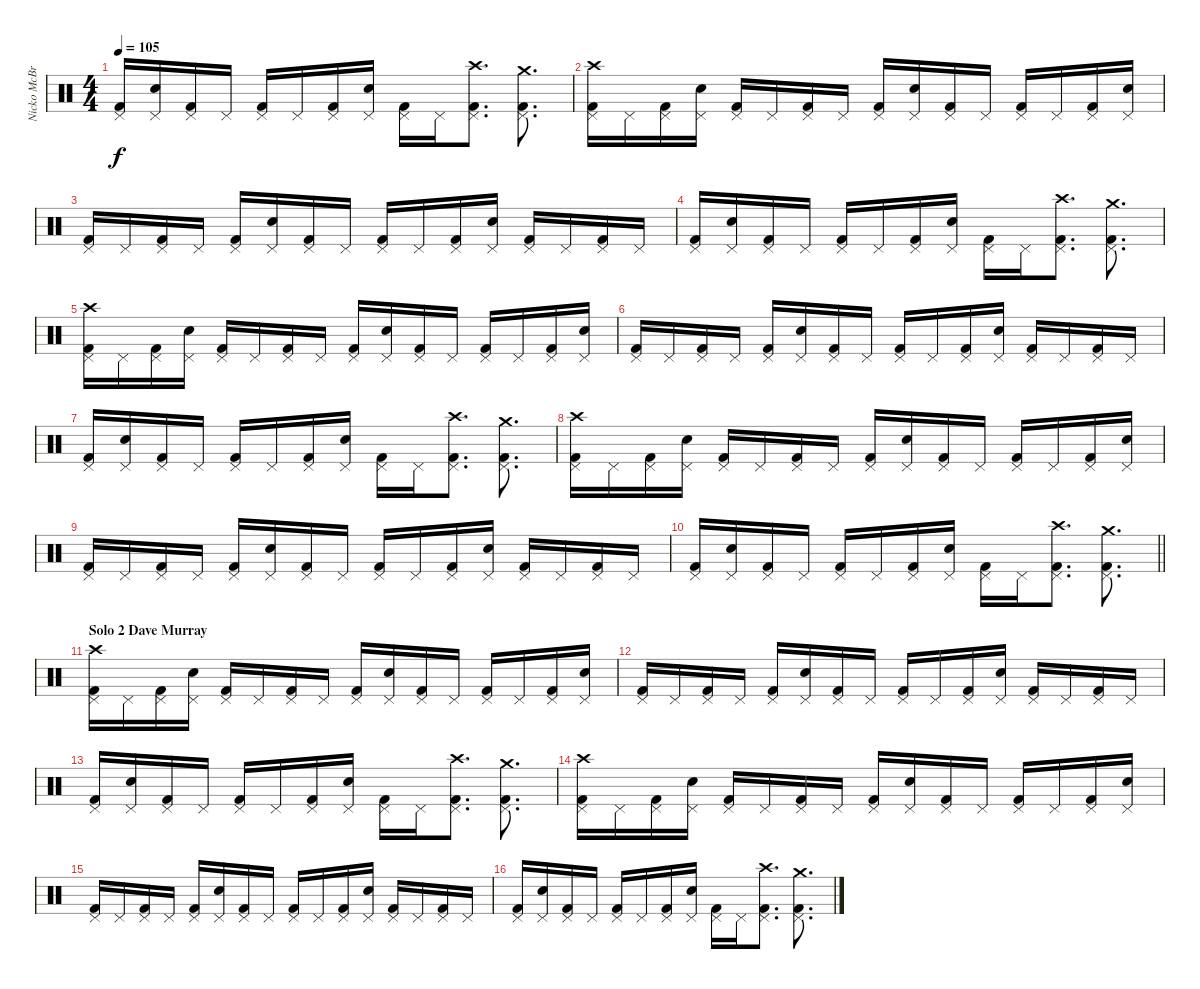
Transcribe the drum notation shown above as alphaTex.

\track ("Nicko McBrain" "Nicko McBr") {instrument percussion}
\staff {score}
\articulation defaults
\ts (4 4)
\tempo 105
\clef neutral
\ks c
("Kick (hit) 2" "Pedal Hi-Hat (hit)").16{dy f} ("Snare (hit) 2" "Pedal Hi-Hat (hit)").16 ("Kick (hit) 2" "Pedal Hi-Hat (hit)").16 "Pedal Hi-Hat (hit)".16 ("Kick (hit) 2" "Pedal Hi-Hat (hit)").16 "Pedal Hi-Hat (hit)".16 ("Kick (hit) 2" "Pedal Hi-Hat (hit)").16 ("Snare (hit) 2" "Pedal Hi-Hat (hit)").16 ("Kick (hit) 2" "Pedal Hi-Hat (hit)").16 "Pedal Hi-Hat (hit)".16 ("Kick (hit) 2" "Pedal Hi-Hat (hit)" "Crash high (hit)").8{d} ("Kick (hit) 2" "Pedal Hi-Hat (hit)" "Crash medium (hit)").8{d} |
("Kick (hit) 2" "Pedal Hi-Hat (hit)" "Crash high (hit)").16 "Pedal Hi-Hat (hit)".16 ("Kick (hit) 2" "Pedal Hi-Hat (hit)").16 ("Snare (hit) 2" "Pedal Hi-Hat (hit)").16 ("Kick (hit) 2" "Pedal Hi-Hat (hit)").16 "Pedal Hi-Hat (hit)".16 ("Kick (hit) 2" "Pedal Hi-Hat (hit)").16 "Pedal Hi-Hat (hit)".16 ("Kick (hit) 2" "Pedal Hi-Hat (hit)").16 ("Snare (hit) 2" "Pedal Hi-Hat (hit)").16 ("Kick (hit) 2" "Pedal Hi-Hat (hit)").16 "Pedal Hi-Hat (hit)".16 ("Kick (hit) 2" "Pedal Hi-Hat (hit)").16 "Pedal Hi-Hat (hit)".16 ("Kick (hit) 2" "Pedal Hi-Hat (hit)").16 ("Snare (hit) 2" "Pedal Hi-Hat (hit)").16 |
("Kick (hit) 2" "Pedal Hi-Hat (hit)").16 "Pedal Hi-Hat (hit)".16 ("Kick (hit) 2" "Pedal Hi-Hat (hit)").16 "Pedal Hi-Hat (hit)".16 ("Kick (hit) 2" "Pedal Hi-Hat (hit)").16 ("Snare (hit) 2" "Pedal Hi-Hat (hit)").16 ("Kick (hit) 2" "Pedal Hi-Hat (hit)").16 "Pedal Hi-Hat (hit)".16 ("Kick (hit) 2" "Pedal Hi-Hat (hit)").16 "Pedal Hi-Hat (hit)".16 ("Kick (hit) 2" "Pedal Hi-Hat (hit)").16 ("Snare (hit) 2" "Pedal Hi-Hat (hit)").16 ("Kick (hit) 2" "Pedal Hi-Hat (hit)").16 "Pedal Hi-Hat (hit)".16 ("Kick (hit) 2" "Pedal Hi-Hat (hit)").16 "Pedal Hi-Hat (hit)".16 |
("Kick (hit) 2" "Pedal Hi-Hat (hit)").16 ("Snare (hit) 2" "Pedal Hi-Hat (hit)").16 ("Kick (hit) 2" "Pedal Hi-Hat (hit)").16 "Pedal Hi-Hat (hit)".16 ("Kick (hit) 2" "Pedal Hi-Hat (hit)").16 "Pedal Hi-Hat (hit)".16 ("Kick (hit) 2" "Pedal Hi-Hat (hit)").16 ("Snare (hit) 2" "Pedal Hi-Hat (hit)").16 ("Kick (hit) 2" "Pedal Hi-Hat (hit)").16 "Pedal Hi-Hat (hit)".16 ("Kick (hit) 2" "Pedal Hi-Hat (hit)" "Crash high (hit)").8{d} ("Kick (hit) 2" "Pedal Hi-Hat (hit)" "Crash medium (hit)").8{d} |
("Kick (hit) 2" "Pedal Hi-Hat (hit)" "Crash high (hit)").16 "Pedal Hi-Hat (hit)".16 ("Kick (hit) 2" "Pedal Hi-Hat (hit)").16 ("Snare (hit) 2" "Pedal Hi-Hat (hit)").16 ("Kick (hit) 2" "Pedal Hi-Hat (hit)").16 "Pedal Hi-Hat (hit)".16 ("Kick (hit) 2" "Pedal Hi-Hat (hit)").16 "Pedal Hi-Hat (hit)".16 ("Kick (hit) 2" "Pedal Hi-Hat (hit)").16 ("Snare (hit) 2" "Pedal Hi-Hat (hit)").16 ("Kick (hit) 2" "Pedal Hi-Hat (hit)").16 "Pedal Hi-Hat (hit)".16 ("Kick (hit) 2" "Pedal Hi-Hat (hit)").16 "Pedal Hi-Hat (hit)".16 ("Kick (hit) 2" "Pedal Hi-Hat (hit)").16 ("Snare (hit) 2" "Pedal Hi-Hat (hit)").16 |
("Kick (hit) 2" "Pedal Hi-Hat (hit)").16 "Pedal Hi-Hat (hit)".16 ("Kick (hit) 2" "Pedal Hi-Hat (hit)").16 "Pedal Hi-Hat (hit)".16 ("Kick (hit) 2" "Pedal Hi-Hat (hit)").16 ("Snare (hit) 2" "Pedal Hi-Hat (hit)").16 ("Kick (hit) 2" "Pedal Hi-Hat (hit)").16 "Pedal Hi-Hat (hit)".16 ("Kick (hit) 2" "Pedal Hi-Hat (hit)").16 "Pedal Hi-Hat (hit)".16 ("Kick (hit) 2" "Pedal Hi-Hat (hit)").16 ("Snare (hit) 2" "Pedal Hi-Hat (hit)").16 ("Kick (hit) 2" "Pedal Hi-Hat (hit)").16 "Pedal Hi-Hat (hit)".16 ("Kick (hit) 2" "Pedal Hi-Hat (hit)").16 "Pedal Hi-Hat (hit)".16 |
("Kick (hit) 2" "Pedal Hi-Hat (hit)").16 ("Snare (hit) 2" "Pedal Hi-Hat (hit)").16 ("Kick (hit) 2" "Pedal Hi-Hat (hit)").16 "Pedal Hi-Hat (hit)".16 ("Kick (hit) 2" "Pedal Hi-Hat (hit)").16 "Pedal Hi-Hat (hit)".16 ("Kick (hit) 2" "Pedal Hi-Hat (hit)").16 ("Snare (hit) 2" "Pedal Hi-Hat (hit)").16 ("Kick (hit) 2" "Pedal Hi-Hat (hit)").16 "Pedal Hi-Hat (hit)".16 ("Kick (hit) 2" "Pedal Hi-Hat (hit)" "Crash high (hit)").8{d} ("Kick (hit) 2" "Pedal Hi-Hat (hit)" "Crash medium (hit)").8{d} |
("Kick (hit) 2" "Pedal Hi-Hat (hit)" "Crash high (hit)").16 "Pedal Hi-Hat (hit)".16 ("Kick (hit) 2" "Pedal Hi-Hat (hit)").16 ("Snare (hit) 2" "Pedal Hi-Hat (hit)").16 ("Kick (hit) 2" "Pedal Hi-Hat (hit)").16 "Pedal Hi-Hat (hit)".16 ("Kick (hit) 2" "Pedal Hi-Hat (hit)").16 "Pedal Hi-Hat (hit)".16 ("Kick (hit) 2" "Pedal Hi-Hat (hit)").16 ("Snare (hit) 2" "Pedal Hi-Hat (hit)").16 ("Kick (hit) 2" "Pedal Hi-Hat (hit)").16 "Pedal Hi-Hat (hit)".16 ("Kick (hit) 2" "Pedal Hi-Hat (hit)").16 "Pedal Hi-Hat (hit)".16 ("Kick (hit) 2" "Pedal Hi-Hat (hit)").16 ("Snare (hit) 2" "Pedal Hi-Hat (hit)").16 |
("Kick (hit) 2" "Pedal Hi-Hat (hit)").16 "Pedal Hi-Hat (hit)".16 ("Kick (hit) 2" "Pedal Hi-Hat (hit)").16 "Pedal Hi-Hat (hit)".16 ("Kick (hit) 2" "Pedal Hi-Hat (hit)").16 ("Snare (hit) 2" "Pedal Hi-Hat (hit)").16 ("Kick (hit) 2" "Pedal Hi-Hat (hit)").16 "Pedal Hi-Hat (hit)".16 ("Kick (hit) 2" "Pedal Hi-Hat (hit)").16 "Pedal Hi-Hat (hit)".16 ("Kick (hit) 2" "Pedal Hi-Hat (hit)").16 ("Snare (hit) 2" "Pedal Hi-Hat (hit)").16 ("Kick (hit) 2" "Pedal Hi-Hat (hit)").16 "Pedal Hi-Hat (hit)".16 ("Kick (hit) 2" "Pedal Hi-Hat (hit)").16 "Pedal Hi-Hat (hit)".16 |
\barLineRight lightlight
("Kick (hit) 2" "Pedal Hi-Hat (hit)").16 ("Snare (hit) 2" "Pedal Hi-Hat (hit)").16 ("Kick (hit) 2" "Pedal Hi-Hat (hit)").16 "Pedal Hi-Hat (hit)".16 ("Kick (hit) 2" "Pedal Hi-Hat (hit)").16 "Pedal Hi-Hat (hit)".16 ("Kick (hit) 2" "Pedal Hi-Hat (hit)").16 ("Snare (hit) 2" "Pedal Hi-Hat (hit)").16 ("Kick (hit) 2" "Pedal Hi-Hat (hit)").16 "Pedal Hi-Hat (hit)".16 ("Kick (hit) 2" "Pedal Hi-Hat (hit)" "Crash high (hit)").8{d} ("Kick (hit) 2" "Pedal Hi-Hat (hit)" "Crash medium (hit)").8{d} |
\section ("" "Solo 2 Dave Murray")
("Kick (hit) 2" "Pedal Hi-Hat (hit)" "Crash high (hit)").16 "Pedal Hi-Hat (hit)".16 ("Kick (hit) 2" "Pedal Hi-Hat (hit)").16 ("Snare (hit) 2" "Pedal Hi-Hat (hit)").16 ("Kick (hit) 2" "Pedal Hi-Hat (hit)").16 "Pedal Hi-Hat (hit)".16 ("Kick (hit) 2" "Pedal Hi-Hat (hit)").16 "Pedal Hi-Hat (hit)".16 ("Kick (hit) 2" "Pedal Hi-Hat (hit)").16 ("Snare (hit) 2" "Pedal Hi-Hat (hit)").16 ("Kick (hit) 2" "Pedal Hi-Hat (hit)").16 "Pedal Hi-Hat (hit)".16 ("Kick (hit) 2" "Pedal Hi-Hat (hit)").16 "Pedal Hi-Hat (hit)".16 ("Kick (hit) 2" "Pedal Hi-Hat (hit)").16 ("Snare (hit) 2" "Pedal Hi-Hat (hit)").16 |
("Kick (hit) 2" "Pedal Hi-Hat (hit)").16 "Pedal Hi-Hat (hit)".16 ("Kick (hit) 2" "Pedal Hi-Hat (hit)").16 "Pedal Hi-Hat (hit)".16 ("Kick (hit) 2" "Pedal Hi-Hat (hit)").16 ("Snare (hit) 2" "Pedal Hi-Hat (hit)").16 ("Kick (hit) 2" "Pedal Hi-Hat (hit)").16 "Pedal Hi-Hat (hit)".16 ("Kick (hit) 2" "Pedal Hi-Hat (hit)").16 "Pedal Hi-Hat (hit)".16 ("Kick (hit) 2" "Pedal Hi-Hat (hit)").16 ("Snare (hit) 2" "Pedal Hi-Hat (hit)").16 ("Kick (hit) 2" "Pedal Hi-Hat (hit)").16 "Pedal Hi-Hat (hit)".16 ("Kick (hit) 2" "Pedal Hi-Hat (hit)").16 "Pedal Hi-Hat (hit)".16 |
("Kick (hit) 2" "Pedal Hi-Hat (hit)").16 ("Snare (hit) 2" "Pedal Hi-Hat (hit)").16 ("Kick (hit) 2" "Pedal Hi-Hat (hit)").16 "Pedal Hi-Hat (hit)".16 ("Kick (hit) 2" "Pedal Hi-Hat (hit)").16 "Pedal Hi-Hat (hit)".16 ("Kick (hit) 2" "Pedal Hi-Hat (hit)").16 ("Snare (hit) 2" "Pedal Hi-Hat (hit)").16 ("Kick (hit) 2" "Pedal Hi-Hat (hit)").16 "Pedal Hi-Hat (hit)".16 ("Kick (hit) 2" "Pedal Hi-Hat (hit)" "Crash high (hit)").8{d} ("Kick (hit) 2" "Pedal Hi-Hat (hit)" "Crash medium (hit)").8{d} |
("Kick (hit) 2" "Pedal Hi-Hat (hit)" "Crash high (hit)").16 "Pedal Hi-Hat (hit)".16 ("Kick (hit) 2" "Pedal Hi-Hat (hit)").16 ("Snare (hit) 2" "Pedal Hi-Hat (hit)").16 ("Kick (hit) 2" "Pedal Hi-Hat (hit)").16 "Pedal Hi-Hat (hit)".16 ("Kick (hit) 2" "Pedal Hi-Hat (hit)").16 "Pedal Hi-Hat (hit)".16 ("Kick (hit) 2" "Pedal Hi-Hat (hit)").16 ("Snare (hit) 2" "Pedal Hi-Hat (hit)").16 ("Kick (hit) 2" "Pedal Hi-Hat (hit)").16 "Pedal Hi-Hat (hit)".16 ("Kick (hit) 2" "Pedal Hi-Hat (hit)").16 "Pedal Hi-Hat (hit)".16 ("Kick (hit) 2" "Pedal Hi-Hat (hit)").16 ("Snare (hit) 2" "Pedal Hi-Hat (hit)").16 |
("Kick (hit) 2" "Pedal Hi-Hat (hit)").16 "Pedal Hi-Hat (hit)".16 ("Kick (hit) 2" "Pedal Hi-Hat (hit)").16 "Pedal Hi-Hat (hit)".16 ("Kick (hit) 2" "Pedal Hi-Hat (hit)").16 ("Snare (hit) 2" "Pedal Hi-Hat (hit)").16 ("Kick (hit) 2" "Pedal Hi-Hat (hit)").16 "Pedal Hi-Hat (hit)".16 ("Kick (hit) 2" "Pedal Hi-Hat (hit)").16 "Pedal Hi-Hat (hit)".16 ("Kick (hit) 2" "Pedal Hi-Hat (hit)").16 ("Snare (hit) 2" "Pedal Hi-Hat (hit)").16 ("Kick (hit) 2" "Pedal Hi-Hat (hit)").16 "Pedal Hi-Hat (hit)".16 ("Kick (hit) 2" "Pedal Hi-Hat (hit)").16 "Pedal Hi-Hat (hit)".16 |
("Kick (hit) 2" "Pedal Hi-Hat (hit)").16 ("Snare (hit) 2" "Pedal Hi-Hat (hit)").16 ("Kick (hit) 2" "Pedal Hi-Hat (hit)").16 "Pedal Hi-Hat (hit)".16 ("Kick (hit) 2" "Pedal Hi-Hat (hit)").16 "Pedal Hi-Hat (hit)".16 ("Kick (hit) 2" "Pedal Hi-Hat (hit)").16 ("Snare (hit) 2" "Pedal Hi-Hat (hit)").16 ("Kick (hit) 2" "Pedal Hi-Hat (hit)").16 "Pedal Hi-Hat (hit)".16 ("Kick (hit) 2" "Pedal Hi-Hat (hit)" "Crash high (hit)").8{d} ("Kick (hit) 2" "Pedal Hi-Hat (hit)" "Crash medium (hit)").8{d}
